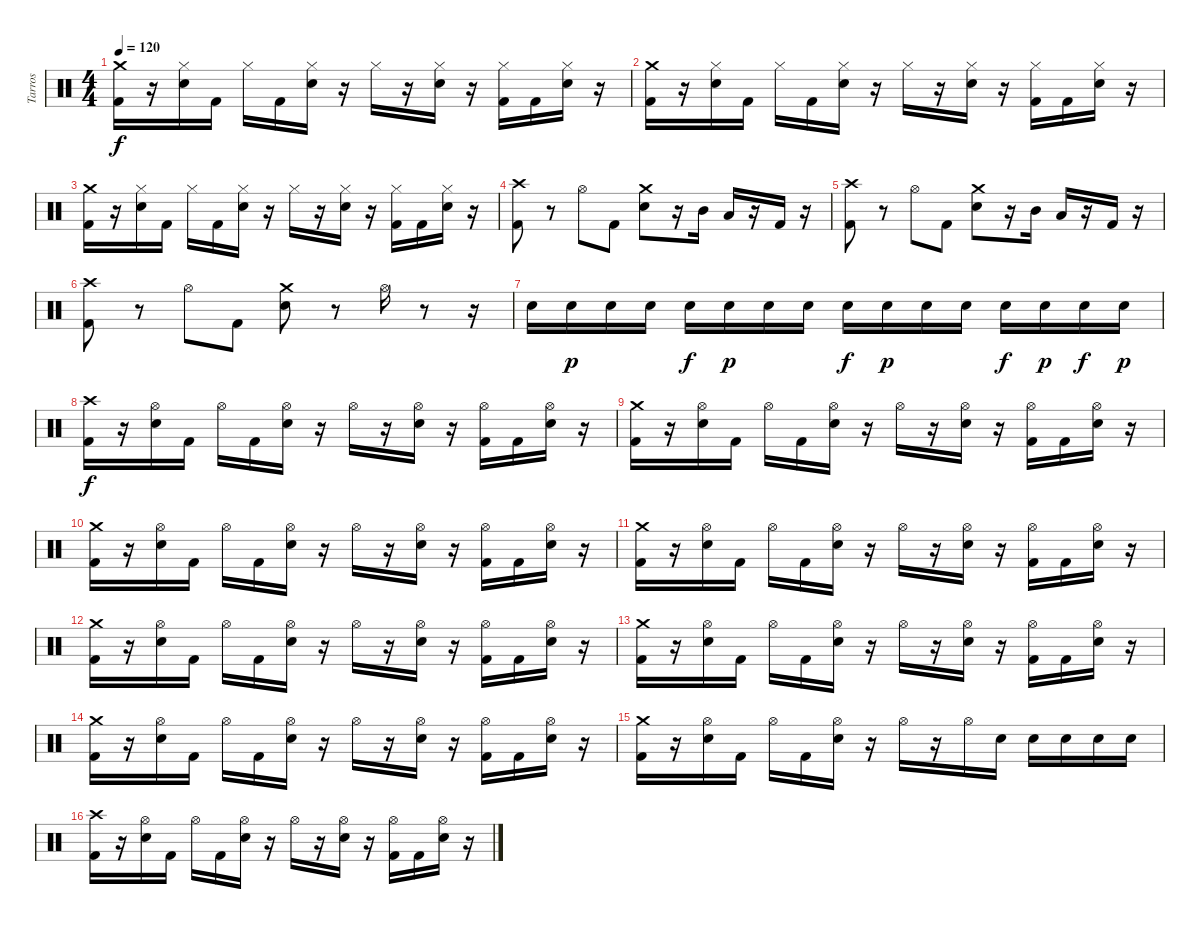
\track ("Tarros" "Tarros") {instrument percussion}
\staff {score}
\articulation defaults
\ts (4 4)
\tempo 120
\clef neutral
\ks c
("Crash medium (hit)" "Kick (hit) 2").16{dy f} r.16 ("Hi-Hat (closed)" "Electric Snare (hit)").16 "Kick (hit) 2".16 "Hi-Hat (closed)".16 "Kick (hit) 2".16 ("Hi-Hat (closed)" "Electric Snare (hit)").16 r.16 "Hi-Hat (closed)".16 r.16 ("Hi-Hat (closed)" "Electric Snare (hit)").16 r.16 ("Hi-Hat (closed)" "Kick (hit) 2").16 "Kick (hit) 2".16 ("Hi-Hat (closed)" "Electric Snare (hit)").16 r.16 |
("Crash medium (hit)" "Kick (hit) 2").16 r.16 ("Hi-Hat (closed)" "Electric Snare (hit)").16 "Kick (hit) 2".16 "Hi-Hat (closed)".16 "Kick (hit) 2".16 ("Hi-Hat (closed)" "Electric Snare (hit)").16 r.16 "Hi-Hat (closed)".16 r.16 ("Hi-Hat (closed)" "Electric Snare (hit)").16 r.16 ("Hi-Hat (closed)" "Kick (hit) 2").16 "Kick (hit) 2".16 ("Hi-Hat (closed)" "Electric Snare (hit)").16 r.16 |
("Crash medium (hit)" "Kick (hit) 2").16 r.16 ("Hi-Hat (closed)" "Electric Snare (hit)").16 "Kick (hit) 2".16 "Hi-Hat (closed)".16 "Kick (hit) 2".16 ("Hi-Hat (closed)" "Electric Snare (hit)").16 r.16 "Hi-Hat (closed)".16 r.16 ("Hi-Hat (closed)" "Electric Snare (hit)").16 r.16 ("Hi-Hat (closed)" "Kick (hit) 2").16 "Kick (hit) 2".16 ("Hi-Hat (closed)" "Electric Snare (hit)").16 r.16 |
("Crash high (hit)" "Kick (hit) 2").8 r.8 "Hi-Hat (open)".8 "Kick (hit) 2".8 ("Crash medium (hit)" "Electric Snare (hit)").8 r.16 "Mid Tom (hit)".16 "Low Tom (hit)".16 r.16 "Kick (hit) 2".16 r.16 |
("Crash high (hit)" "Kick (hit) 2").8 r.8 "Hi-Hat (open)".8 "Kick (hit) 2".8 ("Crash medium (hit)" "Electric Snare (hit)").8 r.16 "Mid Tom (hit)".16 "Low Tom (hit)".16 r.16 "Kick (hit) 2".16 r.16 |
("Crash high (hit)" "Kick (hit) 2").8 r.8 "Hi-Hat (open)".8 "Kick (hit) 2".8 ("Crash medium (hit)" "Electric Snare (hit)").8 r.8 "Hi-Hat (open)".16 r.8 r.16 |
"Electric Snare (hit)".16 "Electric Snare (hit)".16{dy p} "Electric Snare (hit)".16 "Electric Snare (hit)".16 "Electric Snare (hit)".16{dy f} "Electric Snare (hit)".16{dy p} "Electric Snare (hit)".16 "Electric Snare (hit)".16 "Electric Snare (hit)".16{dy f} "Electric Snare (hit)".16{dy p} "Electric Snare (hit)".16 "Electric Snare (hit)".16 "Electric Snare (hit)".16{dy f} "Electric Snare (hit)".16{dy p} "Electric Snare (hit)".16{dy f} "Electric Snare (hit)".16{dy p} |
("Crash high (hit)" "Kick (hit) 2").16{dy f} r.16 ("Hi-Hat (open)" "Electric Snare (hit)").16 "Kick (hit) 2".16 "Hi-Hat (open)".16 "Kick (hit) 2".16 ("Hi-Hat (open)" "Electric Snare (hit)").16 r.16 "Hi-Hat (open)".16 r.16 ("Hi-Hat (open)" "Electric Snare (hit)").16 r.16 ("Hi-Hat (open)" "Kick (hit) 2").16 "Kick (hit) 2".16 ("Hi-Hat (open)" "Electric Snare (hit)").16 r.16 |
("Crash medium (hit)" "Kick (hit) 2").16 r.16 ("Hi-Hat (open)" "Electric Snare (hit)").16 "Kick (hit) 2".16 "Hi-Hat (open)".16 "Kick (hit) 2".16 ("Hi-Hat (open)" "Electric Snare (hit)").16 r.16 "Hi-Hat (open)".16 r.16 ("Hi-Hat (open)" "Electric Snare (hit)").16 r.16 ("Hi-Hat (open)" "Kick (hit) 2").16 "Kick (hit) 2".16 ("Hi-Hat (open)" "Electric Snare (hit)").16 r.16 |
("Crash medium (hit)" "Kick (hit) 2").16 r.16 ("Hi-Hat (open)" "Electric Snare (hit)").16 "Kick (hit) 2".16 "Hi-Hat (open)".16 "Kick (hit) 2".16 ("Hi-Hat (open)" "Electric Snare (hit)").16 r.16 "Hi-Hat (open)".16 r.16 ("Hi-Hat (open)" "Electric Snare (hit)").16 r.16 ("Hi-Hat (open)" "Kick (hit) 2").16 "Kick (hit) 2".16 ("Hi-Hat (open)" "Electric Snare (hit)").16 r.16 |
("Crash medium (hit)" "Kick (hit) 2").16 r.16 ("Hi-Hat (open)" "Electric Snare (hit)").16 "Kick (hit) 2".16 "Hi-Hat (open)".16 "Kick (hit) 2".16 ("Hi-Hat (open)" "Electric Snare (hit)").16 r.16 "Hi-Hat (open)".16 r.16 ("Hi-Hat (open)" "Electric Snare (hit)").16 r.16 ("Hi-Hat (open)" "Kick (hit) 2").16 "Kick (hit) 2".16 ("Hi-Hat (open)" "Electric Snare (hit)").16 r.16 |
("Crash medium (hit)" "Kick (hit) 2").16 r.16 ("Hi-Hat (open)" "Electric Snare (hit)").16 "Kick (hit) 2".16 "Hi-Hat (open)".16 "Kick (hit) 2".16 ("Hi-Hat (open)" "Electric Snare (hit)").16 r.16 "Hi-Hat (open)".16 r.16 ("Hi-Hat (open)" "Electric Snare (hit)").16 r.16 ("Hi-Hat (open)" "Kick (hit) 2").16 "Kick (hit) 2".16 ("Hi-Hat (open)" "Electric Snare (hit)").16 r.16 |
("Crash medium (hit)" "Kick (hit) 2").16 r.16 ("Hi-Hat (open)" "Electric Snare (hit)").16 "Kick (hit) 2".16 "Hi-Hat (open)".16 "Kick (hit) 2".16 ("Hi-Hat (open)" "Electric Snare (hit)").16 r.16 "Hi-Hat (open)".16 r.16 ("Hi-Hat (open)" "Electric Snare (hit)").16 r.16 ("Hi-Hat (open)" "Kick (hit) 2").16 "Kick (hit) 2".16 ("Hi-Hat (open)" "Electric Snare (hit)").16 r.16 |
("Crash medium (hit)" "Kick (hit) 2").16 r.16 ("Hi-Hat (open)" "Electric Snare (hit)").16 "Kick (hit) 2".16 "Hi-Hat (open)".16 "Kick (hit) 2".16 ("Hi-Hat (open)" "Electric Snare (hit)").16 r.16 "Hi-Hat (open)".16 r.16 ("Hi-Hat (open)" "Electric Snare (hit)").16 r.16 ("Hi-Hat (open)" "Kick (hit) 2").16 "Kick (hit) 2".16 ("Hi-Hat (open)" "Electric Snare (hit)").16 r.16 |
("Crash medium (hit)" "Kick (hit) 2").16 r.16 ("Hi-Hat (open)" "Electric Snare (hit)").16 "Kick (hit) 2".16 "Hi-Hat (open)".16 "Kick (hit) 2".16 ("Hi-Hat (open)" "Electric Snare (hit)").16 r.16 "Hi-Hat (open)".16 r.16 "Hi-Hat (open)".16 "Electric Snare (hit)".16 "Electric Snare (hit)".16 "Electric Snare (hit)".16 "Electric Snare (hit)".16 "Electric Snare (hit)".16 |
("Crash high (hit)" "Kick (hit) 2").16 r.16 ("Hi-Hat (open)" "Electric Snare (hit)").16 "Kick (hit) 2".16 "Hi-Hat (open)".16 "Kick (hit) 2".16 ("Hi-Hat (open)" "Electric Snare (hit)").16 r.16 "Hi-Hat (open)".16 r.16 ("Hi-Hat (open)" "Electric Snare (hit)").16 r.16 ("Hi-Hat (open)" "Kick (hit) 2").16 "Kick (hit) 2".16 ("Hi-Hat (open)" "Electric Snare (hit)").16 r.16
